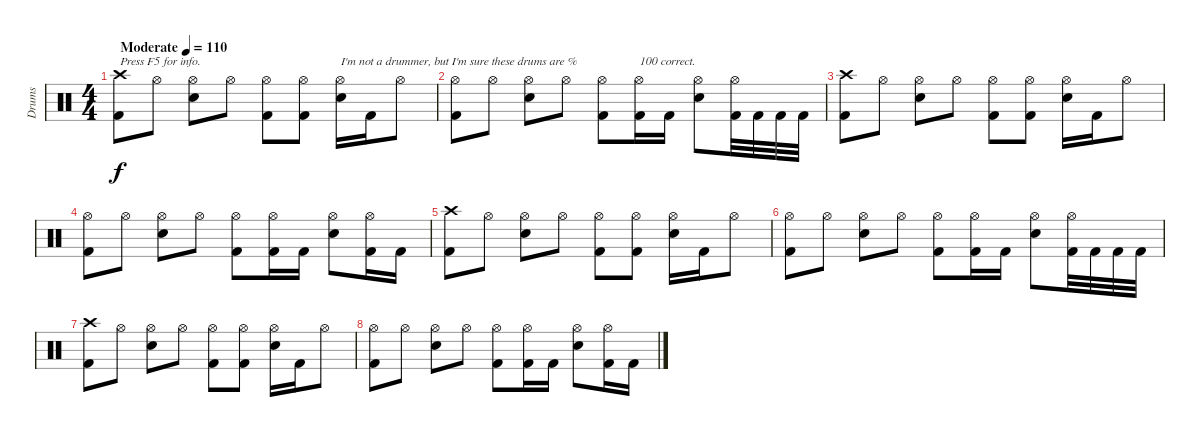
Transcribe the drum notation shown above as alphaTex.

\track ("Drums" "Drums") {instrument percussion}
\staff {score}
\articulation defaults
\ts (4 4)
\tempo (110 "Moderate")
\clef neutral
\ks c
("Crash high (hit)" "Kick (hit) 2").8{txt "Press F5 for info." dy f} "Hi-Hat (open)".8 ("Snare (hit) 2" "Hi-Hat (open)").8 "Hi-Hat (open)".8 ("Hi-Hat (open)" "Kick (hit) 2").8 ("Hi-Hat (open)" "Kick (hit) 2").8 ("Snare (hit) 2" "Hi-Hat (open)").16{txt "I'm not a drummer, but I'm sure these drums are %"} "Kick (hit) 2".16 "Hi-Hat (open)".8 |
("Hi-Hat (open)" "Kick (hit) 2").8 "Hi-Hat (open)".8 ("Snare (hit) 2" "Hi-Hat (open)").8 "Hi-Hat (open)".8 ("Hi-Hat (open)" "Kick (hit) 2").8 ("Hi-Hat (open)" "Kick (hit) 2").16{txt "100 correct."} "Kick (hit) 2".16 ("Snare (hit) 2" "Hi-Hat (open)").8 ("Hi-Hat (open)" "Kick (hit) 2").32 "Kick (hit) 2".32 "Kick (hit) 2".32 "Kick (hit) 2".32 |
("Crash high (hit)" "Kick (hit) 2").8 "Hi-Hat (open)".8 ("Snare (hit) 2" "Hi-Hat (open)").8 "Hi-Hat (open)".8 ("Hi-Hat (open)" "Kick (hit) 2").8 ("Hi-Hat (open)" "Kick (hit) 2").8 ("Snare (hit) 2" "Hi-Hat (open)").16 "Kick (hit) 2".16 "Hi-Hat (open)".8 |
("Hi-Hat (open)" "Kick (hit) 2").8 "Hi-Hat (open)".8 ("Snare (hit) 2" "Hi-Hat (open)").8 "Hi-Hat (open)".8 ("Hi-Hat (open)" "Kick (hit) 2").8 ("Hi-Hat (open)" "Kick (hit) 2").16 "Kick (hit) 2".16 ("Snare (hit) 2" "Hi-Hat (open)").8 ("Hi-Hat (open)" "Kick (hit) 2").16 "Kick (hit) 2".16 |
("Crash high (hit)" "Kick (hit) 2").8 "Hi-Hat (open)".8 ("Snare (hit) 2" "Hi-Hat (open)").8 "Hi-Hat (open)".8 ("Hi-Hat (open)" "Kick (hit) 2").8 ("Hi-Hat (open)" "Kick (hit) 2").8 ("Snare (hit) 2" "Hi-Hat (open)").16 "Kick (hit) 2".16 "Hi-Hat (open)".8 |
("Hi-Hat (open)" "Kick (hit) 2").8 "Hi-Hat (open)".8 ("Snare (hit) 2" "Hi-Hat (open)").8 "Hi-Hat (open)".8 ("Hi-Hat (open)" "Kick (hit) 2").8 ("Hi-Hat (open)" "Kick (hit) 2").16 "Kick (hit) 2".16 ("Snare (hit) 2" "Hi-Hat (open)").8 ("Hi-Hat (open)" "Kick (hit) 2").32 "Kick (hit) 2".32 "Kick (hit) 2".32 "Kick (hit) 2".32 |
("Crash high (hit)" "Kick (hit) 2").8 "Hi-Hat (open)".8 ("Snare (hit) 2" "Hi-Hat (open)").8 "Hi-Hat (open)".8 ("Hi-Hat (open)" "Kick (hit) 2").8 ("Hi-Hat (open)" "Kick (hit) 2").8 ("Snare (hit) 2" "Hi-Hat (open)").16 "Kick (hit) 2".16 "Hi-Hat (open)".8 |
("Hi-Hat (open)" "Kick (hit) 2").8 "Hi-Hat (open)".8 ("Snare (hit) 2" "Hi-Hat (open)").8 "Hi-Hat (open)".8 ("Hi-Hat (open)" "Kick (hit) 2").8 ("Hi-Hat (open)" "Kick (hit) 2").16 "Kick (hit) 2".16 ("Snare (hit) 2" "Hi-Hat (open)").8 ("Hi-Hat (open)" "Kick (hit) 2").16 "Kick (hit) 2".16
